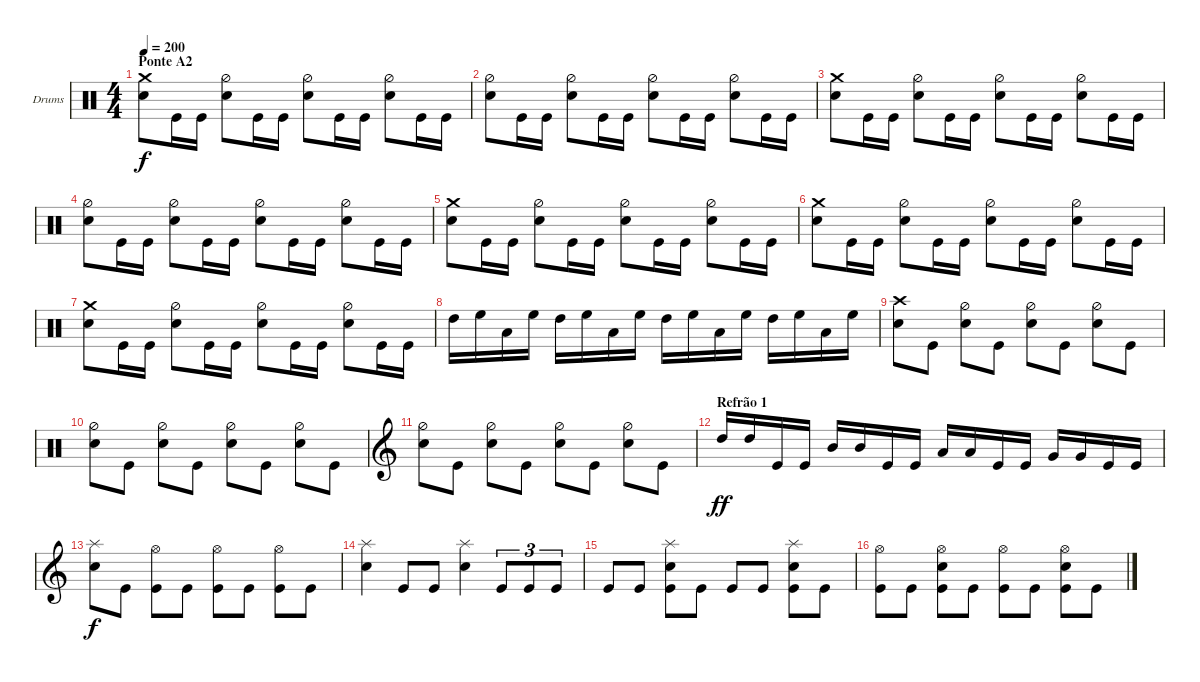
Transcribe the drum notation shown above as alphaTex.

\defaultSystemsLayout 4
\bracketExtendMode groupsimilarinstruments
\firstSystemTrackNameOrientation horizontal
\otherSystemsTrackNameOrientation horizontal
\track ("Drums" "Drums") {instrument percussion}
\staff {score}
\articulation defaults
\ts (4 4)
\section ("" "Ponte A2")
\tempo 200
\clef neutral
\ks c
("Snare (hit) 2" "Crash medium (hit)").8{dy f} "Kick (hit)".16 "Kick (hit)".16 ("Snare (hit) 2" "Hi-Hat (half)").8 "Kick (hit)".16 "Kick (hit)".16 ("Snare (hit) 2" "Hi-Hat (half)").8 "Kick (hit)".16 "Kick (hit)".16 ("Snare (hit) 2" "Hi-Hat (half)").8 "Kick (hit)".16 "Kick (hit)".16 |
("Snare (hit) 2" "Hi-Hat (half)").8 "Kick (hit)".16 "Kick (hit)".16 ("Snare (hit) 2" "Hi-Hat (half)").8 "Kick (hit)".16 "Kick (hit)".16 ("Snare (hit) 2" "Hi-Hat (half)").8 "Kick (hit)".16 "Kick (hit)".16 ("Snare (hit) 2" "Hi-Hat (half)").8 "Kick (hit)".16 "Kick (hit)".16 |
("Snare (hit) 2" "Crash medium (hit)").8 "Kick (hit)".16 "Kick (hit)".16 ("Snare (hit) 2" "Hi-Hat (half)").8 "Kick (hit)".16 "Kick (hit)".16 ("Snare (hit) 2" "Hi-Hat (half)").8 "Kick (hit)".16 "Kick (hit)".16 ("Snare (hit) 2" "Hi-Hat (half)").8 "Kick (hit)".16 "Kick (hit)".16 |
("Snare (hit) 2" "Hi-Hat (half)").8 "Kick (hit)".16 "Kick (hit)".16 ("Snare (hit) 2" "Hi-Hat (half)").8 "Kick (hit)".16 "Kick (hit)".16 ("Snare (hit) 2" "Hi-Hat (half)").8 "Kick (hit)".16 "Kick (hit)".16 ("Snare (hit) 2" "Hi-Hat (half)").8 "Kick (hit)".16 "Kick (hit)".16 |
("Snare (hit) 2" "Crash medium (hit)").8 "Kick (hit)".16 "Kick (hit)".16 ("Snare (hit) 2" "Hi-Hat (half)").8 "Kick (hit)".16 "Kick (hit)".16 ("Snare (hit) 2" "Hi-Hat (half)").8 "Kick (hit)".16 "Kick (hit)".16 ("Snare (hit) 2" "Hi-Hat (half)").8 "Kick (hit)".16 "Kick (hit)".16 |
("Snare (hit) 2" "Crash medium (hit)").8 "Kick (hit)".16 "Kick (hit)".16 ("Snare (hit) 2" "Hi-Hat (half)").8 "Kick (hit)".16 "Kick (hit)".16 ("Snare (hit) 2" "Hi-Hat (half)").8 "Kick (hit)".16 "Kick (hit)".16 ("Snare (hit) 2" "Hi-Hat (half)").8 "Kick (hit)".16 "Kick (hit)".16 |
("Snare (hit) 2" "Crash medium (hit)").8 "Kick (hit)".16 "Kick (hit)".16 ("Snare (hit) 2" "Hi-Hat (half)").8 "Kick (hit)".16 "Kick (hit)".16 ("Snare (hit) 2" "Hi-Hat (half)").8 "Kick (hit)".16 "Kick (hit)".16 ("Snare (hit) 2" "Hi-Hat (half)").8 "Kick (hit)".16 "Kick (hit)".16 |
"High Tom (hit)".16 "High Floor Tom (hit)".16 "Low Tom (hit)".16 "High Floor Tom (hit)".16 "High Tom (hit)".16 "High Floor Tom (hit)".16 "Low Tom (hit)".16 "High Floor Tom (hit)".16 "High Tom (hit)".16 "High Floor Tom (hit)".16 "Low Tom (hit)".16 "High Floor Tom (hit)".16 "High Tom (hit)".16 "High Floor Tom (hit)".16 "Low Tom (hit)".16 "High Floor Tom (hit)".16 |
("Snare (hit) 2" "Crash high (hit)").8 "Kick (hit)".8 ("Snare (hit) 2" "Hi-Hat (half)").8 "Kick (hit)".8 ("Snare (hit) 2" "Hi-Hat (half)").8 "Kick (hit)".8 ("Snare (hit) 2" "Hi-Hat (half)").8 "Kick (hit)".8 |
("Snare (hit) 2" "Hi-Hat (half)").8 "Kick (hit)".8 ("Snare (hit) 2" "Hi-Hat (half)").8 "Kick (hit)".8 ("Snare (hit) 2" "Hi-Hat (half)").8 "Kick (hit)".8 ("Snare (hit) 2" "Hi-Hat (half)").8 "Kick (hit)".8 |
\clef g2
("Snare (hit) 2" "Hi-Hat (half)").8 "Kick (hit)".8 ("Snare (hit) 2" "Hi-Hat (half)").8 "Kick (hit)".8 ("Snare (hit) 2" "Hi-Hat (half)").8 "Kick (hit)".8 ("Snare (hit) 2" "Hi-Hat (half)").8 "Kick (hit)".8 |
\section ("" "Refrão 1")
"High Tom (hit)".16{dy ff} "High Tom (hit)".16 "Kick (hit)".16 "Kick (hit)".16 "Mid Tom (hit)".16 "Mid Tom (hit)".16 "Kick (hit)".16 "Kick (hit)".16 "Low Tom (hit)".16 "Low Tom (hit)".16 "Kick (hit)".16 "Kick (hit)".16 "Very Low Tom (hit)".16 "Very Low Tom (hit)".16 "Kick (hit)".16 "Kick (hit)".16 |
("Snare (hit) 2" "Splash (hit)").8{dy f} "Kick (hit)".8 ("Kick (hit)" "Hi-Hat (open)").8 "Kick (hit)".8 ("Kick (hit)" "Hi-Hat (open)").8 "Kick (hit)".8 ("Kick (hit)" "Hi-Hat (open)").8 "Kick (hit)".8 |
("Snare (hit) 2" "Splash (hit)").4 "Kick (hit)".8 "Kick (hit)".8 ("Snare (hit) 2" "Splash (hit)").4 "Kick (hit)".8{tu (3 2)} "Kick (hit)".8{tu (3 2)} "Kick (hit)".8{tu (3 2)} |
"Kick (hit)".8 "Kick (hit)".8 ("Snare (hit) 2" "Splash (hit)" "Kick (hit)").8 "Kick (hit)".8 "Kick (hit)".8 "Kick (hit)".8 ("Kick (hit)" "Snare (hit) 2" "Splash (hit)").8 "Kick (hit)".8 |
("Kick (hit)" "Hi-Hat (open)").8 "Kick (hit)".8 ("Kick (hit)" "Hi-Hat (open)" "Snare (hit) 2").8 "Kick (hit)".8 ("Kick (hit)" "Hi-Hat (open)").8 "Kick (hit)".8 ("Kick (hit)" "Hi-Hat (open)" "Snare (hit) 2").8 "Kick (hit)".8
